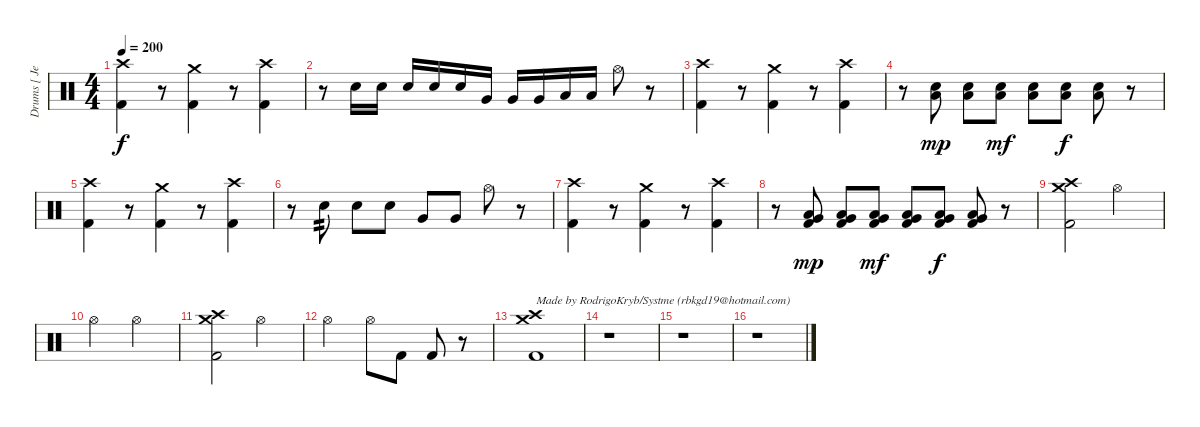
\track ("Drums [ Jesse Ingelevics ]" "Drums [ Je") {instrument percussion}
\staff {score}
\articulation defaults
\ts (4 4)
\tempo 200
\clef neutral
\ks c
("Crash high (hit)" "Kick (hit) 2").4{dy f} r.8 ("Crash medium (hit)" "Kick (hit) 2").4 r.8 ("Crash high (hit)" "Kick (hit) 2").4 |
r.8 "Electric Snare (hit)".16 "Electric Snare (hit)".16 "Electric Snare (hit)".16 "Electric Snare (hit)".16 "Electric Snare (hit)".16 "Very Low Tom (hit)".16 "Very Low Tom (hit)".16 "Very Low Tom (hit)".16 "Low Floor Tom (hit)".16 "Low Floor Tom (hit)".16 "Hi-Hat (open)".8 r.8 |
("Crash high (hit)" "Kick (hit) 2").4 r.8 ("Crash medium (hit)" "Kick (hit) 2").4 r.8 ("Crash high (hit)" "Kick (hit) 2").4 |
r.8 ("Electric Snare (hit)" "Low Floor Tom (hit)").8{dy mp} ("Electric Snare (hit)" "Low Floor Tom (hit)").8 ("Electric Snare (hit)" "Low Floor Tom (hit)").8{dy mf} ("Electric Snare (hit)" "Low Floor Tom (hit)").8 ("Electric Snare (hit)" "Low Floor Tom (hit)").8{dy f} ("Electric Snare (hit)" "Low Floor Tom (hit)").8 r.8 |
("Crash high (hit)" "Kick (hit) 2").4 r.8 ("Crash medium (hit)" "Kick (hit) 2").4 r.8 ("Crash high (hit)" "Kick (hit) 2").4 |
r.8 "Electric Snare (hit)".8{tp 2} "Electric Snare (hit)".8 "Electric Snare (hit)".8 "Very Low Tom (hit)".8 "Very Low Tom (hit)".8 "Hi-Hat (open)".8 r.8 |
("Crash high (hit)" "Kick (hit) 2").4 r.8 ("Crash medium (hit)" "Kick (hit) 2").4 r.8 ("Crash high (hit)" "Kick (hit) 2").4 |
r.8 ("Kick (hit) 2" "Low Floor Tom (hit)" "Very Low Tom (hit)").8{dy mp} ("Low Floor Tom (hit)" "Very Low Tom (hit)" "Kick (hit) 2").8 ("Low Floor Tom (hit)" "Very Low Tom (hit)" "Kick (hit) 2").8{dy mf} ("Very Low Tom (hit)" "Low Floor Tom (hit)" "Kick (hit) 2").8 ("Low Floor Tom (hit)" "Very Low Tom (hit)" "Kick (hit) 2").8{dy f} ("Very Low Tom (hit)" "Low Floor Tom (hit)" "Kick (hit) 2").8 r.8 |
("Crash high (hit)" "Crash medium (hit)" "Kick (hit) 2").2 "Hi-Hat (open)".2 |
"Hi-Hat (open)".2 "Hi-Hat (open)".2 |
("Crash high (hit)" "Crash medium (hit)" "Kick (hit) 2").2 "Hi-Hat (open)".2 |
"Hi-Hat (open)".2 "Hi-Hat (open)".8 "Kick (hit) 2".8 "Kick (hit) 2".8 r.8 |
("Crash high (hit)" "Crash medium (hit)" "Kick (hit) 2").1{txt "Made by RodrigoKryb/Systme (rbkgd19@hotmail.com)"} |
r.1 |
r.1 |
r.1
